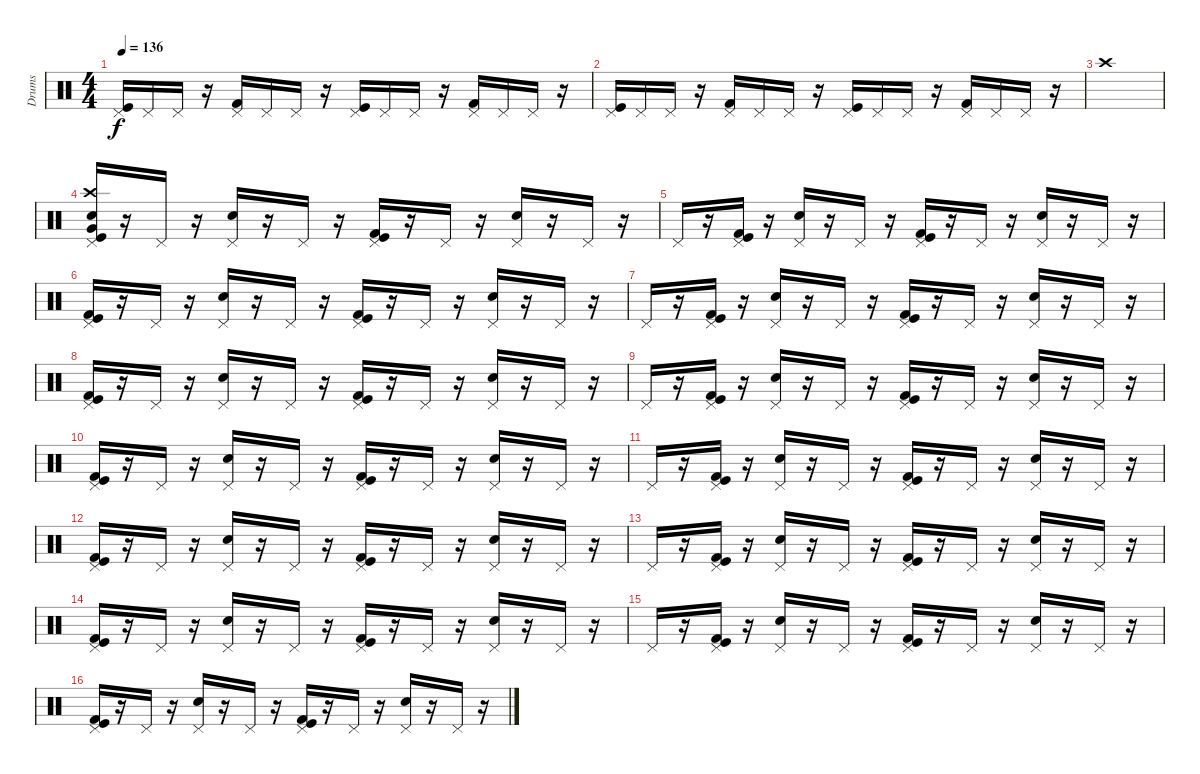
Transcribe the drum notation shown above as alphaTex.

\track ("Drums" "Drums") {instrument percussion}
\staff {score}
\articulation defaults
\ts (4 4)
\tempo 136
\clef neutral
\ks c
("Kick (hit)" "Pedal Hi-Hat (hit)").16{dy f} "Pedal Hi-Hat (hit)".16 "Pedal Hi-Hat (hit)".16 r.16 ("Kick (hit) 2" "Pedal Hi-Hat (hit)").16 "Pedal Hi-Hat (hit)".16 "Pedal Hi-Hat (hit)".16 r.16 ("Kick (hit)" "Pedal Hi-Hat (hit)").16 "Pedal Hi-Hat (hit)".16 "Pedal Hi-Hat (hit)".16 r.16 ("Kick (hit) 2" "Pedal Hi-Hat (hit)").16 "Pedal Hi-Hat (hit)".16 "Pedal Hi-Hat (hit)".16 r.16 |
("Kick (hit)" "Pedal Hi-Hat (hit)").16 "Pedal Hi-Hat (hit)".16 "Pedal Hi-Hat (hit)".16 r.16 ("Kick (hit) 2" "Pedal Hi-Hat (hit)").16 "Pedal Hi-Hat (hit)".16 "Pedal Hi-Hat (hit)".16 r.16 ("Kick (hit)" "Pedal Hi-Hat (hit)").16 "Pedal Hi-Hat (hit)".16 "Pedal Hi-Hat (hit)".16 r.16 ("Kick (hit) 2" "Pedal Hi-Hat (hit)").16 "Pedal Hi-Hat (hit)".16 "Pedal Hi-Hat (hit)".16 r.16 |
"Crash high (hit)".1 |
("Very Low Tom (hit)" "Snare (hit) 2" "Kick (hit)" "Crash high (hit)" "Pedal Hi-Hat (hit)").16 r.16 "Pedal Hi-Hat (hit)".16 r.16 ("Snare (hit) 2" "Pedal Hi-Hat (hit)").16 r.16 "Pedal Hi-Hat (hit)".16 r.16 ("Kick (hit) 2" "Kick (hit)" "Pedal Hi-Hat (hit)").16 r.16 "Pedal Hi-Hat (hit)".16 r.16 ("Snare (hit) 2" "Pedal Hi-Hat (hit)").16 r.16 "Pedal Hi-Hat (hit)".16 r.16 |
"Pedal Hi-Hat (hit)".16 r.16 ("Kick (hit) 2" "Kick (hit)" "Pedal Hi-Hat (hit)").16 r.16 ("Snare (hit) 2" "Pedal Hi-Hat (hit)").16 r.16 "Pedal Hi-Hat (hit)".16 r.16 ("Kick (hit) 2" "Kick (hit)" "Pedal Hi-Hat (hit)").16 r.16 "Pedal Hi-Hat (hit)".16 r.16 ("Snare (hit) 2" "Pedal Hi-Hat (hit)").16 r.16 "Pedal Hi-Hat (hit)".16 r.16 |
("Kick (hit) 2" "Kick (hit)" "Pedal Hi-Hat (hit)").16 r.16 "Pedal Hi-Hat (hit)".16 r.16 ("Snare (hit) 2" "Pedal Hi-Hat (hit)").16 r.16 "Pedal Hi-Hat (hit)".16 r.16 ("Kick (hit) 2" "Kick (hit)" "Pedal Hi-Hat (hit)").16 r.16 "Pedal Hi-Hat (hit)".16 r.16 ("Snare (hit) 2" "Pedal Hi-Hat (hit)").16 r.16 "Pedal Hi-Hat (hit)".16 r.16 |
"Pedal Hi-Hat (hit)".16 r.16 ("Kick (hit) 2" "Kick (hit)" "Pedal Hi-Hat (hit)").16 r.16 ("Snare (hit) 2" "Pedal Hi-Hat (hit)").16 r.16 "Pedal Hi-Hat (hit)".16 r.16 ("Kick (hit) 2" "Kick (hit)" "Pedal Hi-Hat (hit)").16 r.16 "Pedal Hi-Hat (hit)".16 r.16 ("Snare (hit) 2" "Pedal Hi-Hat (hit)").16 r.16 "Pedal Hi-Hat (hit)".16 r.16 |
("Kick (hit) 2" "Kick (hit)" "Pedal Hi-Hat (hit)").16 r.16 "Pedal Hi-Hat (hit)".16 r.16 ("Snare (hit) 2" "Pedal Hi-Hat (hit)").16 r.16 "Pedal Hi-Hat (hit)".16 r.16 ("Kick (hit) 2" "Kick (hit)" "Pedal Hi-Hat (hit)").16 r.16 "Pedal Hi-Hat (hit)".16 r.16 ("Snare (hit) 2" "Pedal Hi-Hat (hit)").16 r.16 "Pedal Hi-Hat (hit)".16 r.16 |
"Pedal Hi-Hat (hit)".16 r.16 ("Kick (hit) 2" "Kick (hit)" "Pedal Hi-Hat (hit)").16 r.16 ("Snare (hit) 2" "Pedal Hi-Hat (hit)").16 r.16 "Pedal Hi-Hat (hit)".16 r.16 ("Kick (hit) 2" "Kick (hit)" "Pedal Hi-Hat (hit)").16 r.16 "Pedal Hi-Hat (hit)".16 r.16 ("Snare (hit) 2" "Pedal Hi-Hat (hit)").16 r.16 "Pedal Hi-Hat (hit)".16 r.16 |
("Kick (hit) 2" "Kick (hit)" "Pedal Hi-Hat (hit)").16 r.16 "Pedal Hi-Hat (hit)".16 r.16 ("Snare (hit) 2" "Pedal Hi-Hat (hit)").16 r.16 "Pedal Hi-Hat (hit)".16 r.16 ("Kick (hit) 2" "Kick (hit)" "Pedal Hi-Hat (hit)").16 r.16 "Pedal Hi-Hat (hit)".16 r.16 ("Snare (hit) 2" "Pedal Hi-Hat (hit)").16 r.16 "Pedal Hi-Hat (hit)".16 r.16 |
"Pedal Hi-Hat (hit)".16 r.16 ("Kick (hit) 2" "Kick (hit)" "Pedal Hi-Hat (hit)").16 r.16 ("Snare (hit) 2" "Pedal Hi-Hat (hit)").16 r.16 "Pedal Hi-Hat (hit)".16 r.16 ("Kick (hit) 2" "Kick (hit)" "Pedal Hi-Hat (hit)").16 r.16 "Pedal Hi-Hat (hit)".16 r.16 ("Snare (hit) 2" "Pedal Hi-Hat (hit)").16 r.16 "Pedal Hi-Hat (hit)".16 r.16 |
("Kick (hit) 2" "Kick (hit)" "Pedal Hi-Hat (hit)").16 r.16 "Pedal Hi-Hat (hit)".16 r.16 ("Snare (hit) 2" "Pedal Hi-Hat (hit)").16 r.16 "Pedal Hi-Hat (hit)".16 r.16 ("Kick (hit) 2" "Kick (hit)" "Pedal Hi-Hat (hit)").16 r.16 "Pedal Hi-Hat (hit)".16 r.16 ("Snare (hit) 2" "Pedal Hi-Hat (hit)").16 r.16 "Pedal Hi-Hat (hit)".16 r.16 |
"Pedal Hi-Hat (hit)".16 r.16 ("Kick (hit) 2" "Kick (hit)" "Pedal Hi-Hat (hit)").16 r.16 ("Snare (hit) 2" "Pedal Hi-Hat (hit)").16 r.16 "Pedal Hi-Hat (hit)".16 r.16 ("Kick (hit) 2" "Kick (hit)" "Pedal Hi-Hat (hit)").16 r.16 "Pedal Hi-Hat (hit)".16 r.16 ("Snare (hit) 2" "Pedal Hi-Hat (hit)").16 r.16 "Pedal Hi-Hat (hit)".16 r.16 |
("Kick (hit) 2" "Kick (hit)" "Pedal Hi-Hat (hit)").16 r.16 "Pedal Hi-Hat (hit)".16 r.16 ("Snare (hit) 2" "Pedal Hi-Hat (hit)").16 r.16 "Pedal Hi-Hat (hit)".16 r.16 ("Kick (hit) 2" "Kick (hit)" "Pedal Hi-Hat (hit)").16 r.16 "Pedal Hi-Hat (hit)".16 r.16 ("Snare (hit) 2" "Pedal Hi-Hat (hit)").16 r.16 "Pedal Hi-Hat (hit)".16 r.16 |
"Pedal Hi-Hat (hit)".16 r.16 ("Kick (hit) 2" "Kick (hit)" "Pedal Hi-Hat (hit)").16 r.16 ("Snare (hit) 2" "Pedal Hi-Hat (hit)").16 r.16 "Pedal Hi-Hat (hit)".16 r.16 ("Kick (hit) 2" "Kick (hit)" "Pedal Hi-Hat (hit)").16 r.16 "Pedal Hi-Hat (hit)".16 r.16 ("Snare (hit) 2" "Pedal Hi-Hat (hit)").16 r.16 "Pedal Hi-Hat (hit)".16 r.16 |
("Kick (hit) 2" "Kick (hit)" "Pedal Hi-Hat (hit)").16 r.16 "Pedal Hi-Hat (hit)".16 r.16 ("Snare (hit) 2" "Pedal Hi-Hat (hit)").16 r.16 "Pedal Hi-Hat (hit)".16 r.16 ("Kick (hit) 2" "Kick (hit)" "Pedal Hi-Hat (hit)").16 r.16 "Pedal Hi-Hat (hit)".16 r.16 ("Snare (hit) 2" "Pedal Hi-Hat (hit)").16 r.16 "Pedal Hi-Hat (hit)".16 r.16
